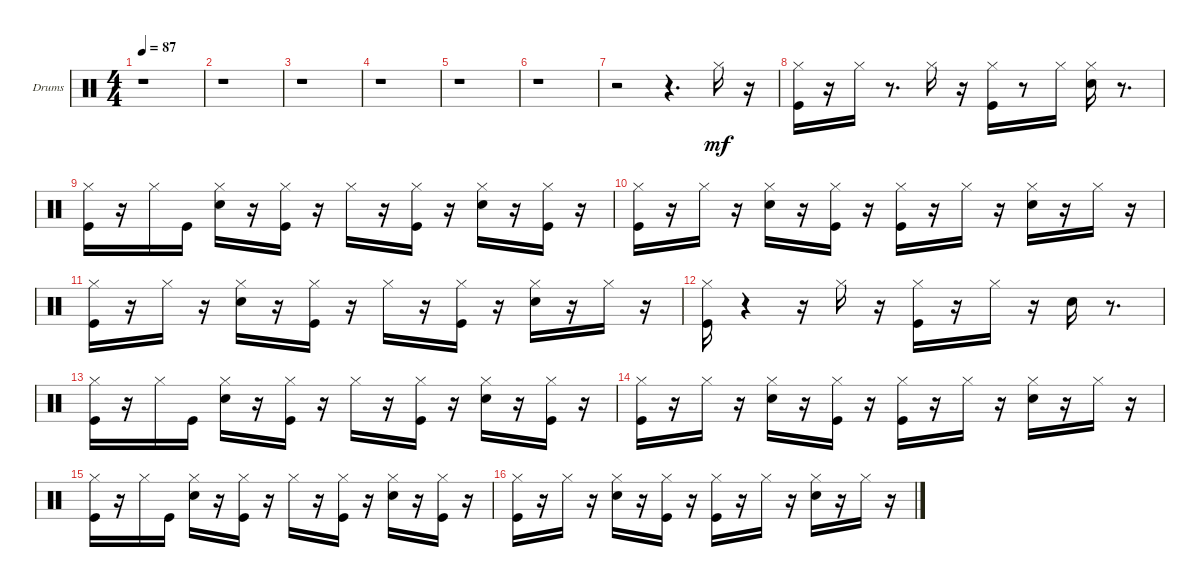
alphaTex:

\bracketExtendMode groupsimilarinstruments
\firstSystemTrackNameOrientation horizontal
\otherSystemsTrackNameOrientation horizontal
\track ("MIDI out" "Drums") {instrument percussion}
\staff {score}
\articulation defaults
\ts (4 4)
\tempo 87
\clef neutral
\ks c
r.1{dy mf} |
r.1 |
r.1 |
r.1 |
r.1 |
r.1 |
r.2 r.4{d} "Hi-Hat (closed)".16 r.16 |
("Hi-Hat (closed)" "Kick (hit)").16 r.16 "Hi-Hat (closed)".16 r.8{d} "Hi-Hat (closed)".16 r.16 ("Hi-Hat (closed)" "Kick (hit)").16 r.8 "Hi-Hat (closed)".16 ("Snare (hit) 2" "Hi-Hat (closed)").16 r.8{d} |
("Kick (hit)" "Hi-Hat (closed)").16 r.16 "Hi-Hat (closed)".16 "Kick (hit)".16 ("Snare (hit) 2" "Hi-Hat (closed)").16 r.16 ("Hi-Hat (closed)" "Kick (hit)").16 r.16 "Hi-Hat (closed)".16 r.16 ("Hi-Hat (closed)" "Kick (hit)").16 r.16 ("Snare (hit) 2" "Hi-Hat (closed)").16 r.16 ("Kick (hit)" "Hi-Hat (closed)").16 r.16 |
("Hi-Hat (closed)" "Kick (hit)").16 r.16 "Hi-Hat (closed)".16 r.16 ("Hi-Hat (closed)" "Snare (hit) 2").16 r.16 ("Kick (hit)" "Hi-Hat (closed)").16 r.16 ("Kick (hit)" "Hi-Hat (closed)").16 r.16 "Hi-Hat (closed)".16 r.16 ("Snare (hit) 2" "Hi-Hat (closed)").16 r.16 "Hi-Hat (closed)".16 r.16 |
("Kick (hit)" "Hi-Hat (closed)").16 r.16 "Hi-Hat (closed)".16 r.16 ("Hi-Hat (closed)" "Snare (hit) 2").16 r.16 ("Hi-Hat (closed)" "Kick (hit)").16 r.16 "Hi-Hat (closed)".16 r.16 ("Hi-Hat (closed)" "Kick (hit)").16 r.16 ("Hi-Hat (closed)" "Snare (hit) 2").16 r.16 "Hi-Hat (closed)".16 r.16 |
("Hi-Hat (closed)" "Kick (hit)").16 r.4 r.16 "Hi-Hat (closed)".16 r.16 ("Kick (hit)" "Hi-Hat (closed)").16 r.16 "Hi-Hat (closed)".16 r.16 "Snare (hit) 2".16 r.8{d} |
("Hi-Hat (closed)" "Kick (hit)").16 r.16 "Hi-Hat (closed)".16 "Kick (hit)".16 ("Snare (hit) 2" "Hi-Hat (closed)").16 r.16 ("Hi-Hat (closed)" "Kick (hit)").16 r.16 "Hi-Hat (closed)".16 r.16 ("Hi-Hat (closed)" "Kick (hit)").16 r.16 ("Snare (hit) 2" "Hi-Hat (closed)").16 r.16 ("Hi-Hat (closed)" "Kick (hit)").16 r.16 |
("Hi-Hat (closed)" "Kick (hit)").16 r.16 "Hi-Hat (closed)".16 r.16 ("Snare (hit) 2" "Hi-Hat (closed)").16 r.16 ("Kick (hit)" "Hi-Hat (closed)").16 r.16 ("Kick (hit)" "Hi-Hat (closed)").16 r.16 "Hi-Hat (closed)".16 r.16 ("Hi-Hat (closed)" "Snare (hit) 2").16 r.16 "Hi-Hat (closed)".16 r.16 |
("Kick (hit)" "Hi-Hat (closed)").16 r.16 "Hi-Hat (closed)".16 "Kick (hit)".16 ("Hi-Hat (closed)" "Snare (hit) 2").16 r.16 ("Hi-Hat (closed)" "Kick (hit)").16 r.16 "Hi-Hat (closed)".16 r.16 ("Kick (hit)" "Hi-Hat (closed)").16 r.16 ("Snare (hit) 2" "Hi-Hat (closed)").16 r.16 ("Kick (hit)" "Hi-Hat (closed)").16 r.16 |
("Kick (hit)" "Hi-Hat (closed)").16 r.16 "Hi-Hat (closed)".16 r.16 ("Hi-Hat (closed)" "Snare (hit) 2").16 r.16 ("Kick (hit)" "Hi-Hat (closed)").16 r.16 ("Hi-Hat (closed)" "Kick (hit)").16 r.16 "Hi-Hat (closed)".16 r.16 ("Snare (hit) 2" "Hi-Hat (closed)").16 r.16 "Hi-Hat (closed)".16 r.16
